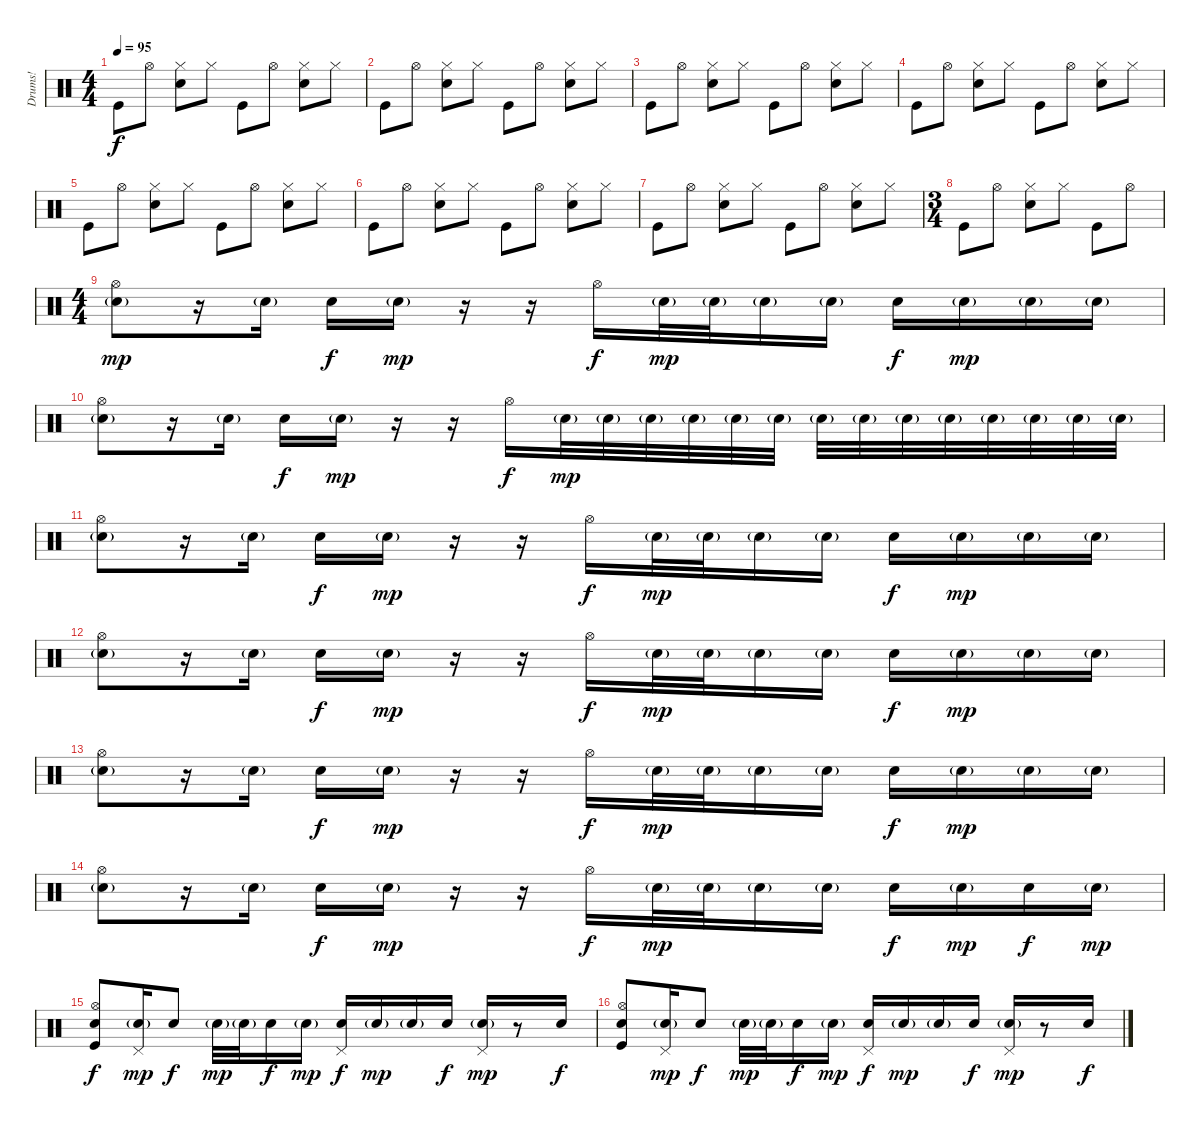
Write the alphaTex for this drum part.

\track ("Drums!" "Drums!") {instrument percussion}
\staff {score}
\articulation defaults
\ts (4 4)
\tempo 95
\clef neutral
\ks c "Kick (hit)".8{dy f} "Hi-Hat (open)".8
("Hi-Hat (closed)" "Electric Snare (hit)").8 "Hi-Hat (closed)".8 "Kick (hit)".8 "Hi-Hat (open)".8 ("Hi-Hat (closed)" "Electric Snare (hit)").8 "Hi-Hat (closed)".8 |
"Kick (hit)".8 "Hi-Hat (open)".8 ("Hi-Hat (closed)" "Electric Snare (hit)").8 "Hi-Hat (closed)".8 "Kick (hit)".8 "Hi-Hat (open)".8 ("Hi-Hat (closed)" "Electric Snare (hit)").8 "Hi-Hat (closed)".8 |
"Kick (hit)".8 "Hi-Hat (open)".8 ("Hi-Hat (closed)" "Electric Snare (hit)").8 "Hi-Hat (closed)".8 "Kick (hit)".8 "Hi-Hat (open)".8 ("Hi-Hat (closed)" "Electric Snare (hit)").8 "Hi-Hat (closed)".8 |
"Kick (hit)".8 "Hi-Hat (open)".8 ("Hi-Hat (closed)" "Electric Snare (hit)").8 "Hi-Hat (closed)".8 "Kick (hit)".8 "Hi-Hat (open)".8 ("Hi-Hat (closed)" "Electric Snare (hit)").8 "Hi-Hat (closed)".8 |
"Kick (hit)".8 "Hi-Hat (open)".8 ("Hi-Hat (closed)" "Electric Snare (hit)").8 "Hi-Hat (closed)".8 "Kick (hit)".8 "Hi-Hat (open)".8 ("Hi-Hat (closed)" "Electric Snare (hit)").8 "Hi-Hat (closed)".8 |
"Kick (hit)".8 "Hi-Hat (open)".8 ("Hi-Hat (closed)" "Electric Snare (hit)").8 "Hi-Hat (closed)".8 "Kick (hit)".8 "Hi-Hat (open)".8 ("Hi-Hat (closed)" "Electric Snare (hit)").8 "Hi-Hat (closed)".8 |
"Kick (hit)".8 "Hi-Hat (open)".8 ("Hi-Hat (closed)" "Electric Snare (hit)").8 "Hi-Hat (closed)".8 "Kick (hit)".8 "Hi-Hat (open)".8 ("Hi-Hat (closed)" "Electric Snare (hit)").8 "Hi-Hat (closed)".8 |
\ts (3 4)
"Kick (hit)".8 "Hi-Hat (open)".8 ("Hi-Hat (closed)" "Electric Snare (hit)").8 "Hi-Hat (closed)".8 "Kick (hit)".8 "Hi-Hat (open)".8 |
\ts (4 4)
("Hi-Hat (open)" "Electric Snare (hit)"{g}).8{dy mp} r.16 "Electric Snare (hit)"{g}.16 "Electric Snare (hit)".16{dy f} "Electric Snare (hit)"{g}.16{dy mp} r.16 r.16 "Hi-Hat (open)".16{dy f} "Electric Snare (hit)"{g}.32{dy mp} "Electric Snare (hit)"{g}.32 "Electric Snare (hit)"{g}.16 "Electric Snare (hit)"{g}.16 "Electric Snare (hit)".16{dy f} "Electric Snare (hit)"{g}.16{dy mp} "Electric Snare (hit)"{g}.16 "Electric Snare (hit)"{g}.16 |
("Hi-Hat (open)" "Electric Snare (hit)"{g}).8 r.16 "Electric Snare (hit)"{g}.16 "Electric Snare (hit)".16{dy f} "Electric Snare (hit)"{g}.16{dy mp} r.16 r.16 "Hi-Hat (open)".16{dy f} "Electric Snare (hit)"{g}.32{dy mp} "Electric Snare (hit)"{g}.32 "Electric Snare (hit)"{g}.32 "Electric Snare (hit)"{g}.32 "Electric Snare (hit)"{g}.32 "Electric Snare (hit)"{g}.32 "Electric Snare (hit)"{g}.32 "Electric Snare (hit)"{g}.32 "Electric Snare (hit)"{g}.32 "Electric Snare (hit)"{g}.32 "Electric Snare (hit)"{g}.32 "Electric Snare (hit)"{g}.32 "Electric Snare (hit)"{g}.32 "Electric Snare (hit)"{g}.32 |
("Hi-Hat (open)" "Electric Snare (hit)"{g}).8 r.16 "Electric Snare (hit)"{g}.16 "Electric Snare (hit)".16{dy f} "Electric Snare (hit)"{g}.16{dy mp} r.16 r.16 "Hi-Hat (open)".16{dy f} "Electric Snare (hit)"{g}.32{dy mp} "Electric Snare (hit)"{g}.32 "Electric Snare (hit)"{g}.16 "Electric Snare (hit)"{g}.16 "Electric Snare (hit)".16{dy f} "Electric Snare (hit)"{g}.16{dy mp} "Electric Snare (hit)"{g}.16 "Electric Snare (hit)"{g}.16 |
("Hi-Hat (open)" "Electric Snare (hit)"{g}).8 r.16 "Electric Snare (hit)"{g}.16 "Electric Snare (hit)".16{dy f} "Electric Snare (hit)"{g}.16{dy mp} r.16 r.16 "Hi-Hat (open)".16{dy f} "Electric Snare (hit)"{g}.32{dy mp} "Electric Snare (hit)"{g}.32 "Electric Snare (hit)"{g}.16 "Electric Snare (hit)"{g}.16 "Electric Snare (hit)".16{dy f} "Electric Snare (hit)"{g}.16{dy mp} "Electric Snare (hit)"{g}.16 "Electric Snare (hit)"{g}.16 |
("Hi-Hat (open)" "Electric Snare (hit)"{g}).8 r.16 "Electric Snare (hit)"{g}.16 "Electric Snare (hit)".16{dy f} "Electric Snare (hit)"{g}.16{dy mp} r.16 r.16 "Hi-Hat (open)".16{dy f} "Electric Snare (hit)"{g}.32{dy mp} "Electric Snare (hit)"{g}.32 "Electric Snare (hit)"{g}.16 "Electric Snare (hit)"{g}.16 "Electric Snare (hit)".16{dy f} "Electric Snare (hit)"{g}.16{dy mp} "Electric Snare (hit)"{g}.16 "Electric Snare (hit)"{g}.16 |
("Hi-Hat (open)" "Electric Snare (hit)"{g}).8 r.16 "Electric Snare (hit)"{g}.16 "Electric Snare (hit)".16{dy f} "Electric Snare (hit)"{g}.16{dy mp} r.16 r.16 "Hi-Hat (open)".16{dy f} "Electric Snare (hit)"{g}.32{dy mp} "Electric Snare (hit)"{g}.32 "Electric Snare (hit)"{g}.16 "Electric Snare (hit)"{g}.16 "Electric Snare (hit)".16{dy f} "Electric Snare (hit)"{g}.16{dy mp} "Electric Snare (hit)".16{dy f} "Electric Snare (hit)"{g}.16{dy mp} |
("Hi-Hat (open)" "Electric Snare (hit)" "Kick (hit)").8{dy f} ("Pedal Hi-Hat (hit)" "Electric Snare (hit)"{g}).16{dy mp} "Electric Snare (hit)".8{dy f} "Electric Snare (hit)"{g}.32{dy mp} "Electric Snare (hit)"{g}.32 "Electric Snare (hit)".16{dy f} "Electric Snare (hit)"{g}.16{dy mp} ("Pedal Hi-Hat (hit)" "Electric Snare (hit)").16{dy f} "Electric Snare (hit)"{g}.16{dy mp} "Electric Snare (hit)"{g}.16 "Electric Snare (hit)".16{dy f} ("Pedal Hi-Hat (hit)" "Electric Snare (hit)"{g}).16{dy mp} r.8 "Electric Snare (hit)".16{dy f} |
("Hi-Hat (open)" "Electric Snare (hit)" "Kick (hit)").8 ("Pedal Hi-Hat (hit)" "Electric Snare (hit)"{g}).16{dy mp} "Electric Snare (hit)".8{dy f} "Electric Snare (hit)"{g}.32{dy mp} "Electric Snare (hit)"{g}.32 "Electric Snare (hit)".16{dy f} "Electric Snare (hit)"{g}.16{dy mp} ("Pedal Hi-Hat (hit)" "Electric Snare (hit)").16{dy f} "Electric Snare (hit)"{g}.16{dy mp} "Electric Snare (hit)"{g}.16 "Electric Snare (hit)".16{dy f} ("Pedal Hi-Hat (hit)" "Electric Snare (hit)"{g}).16{dy mp} r.8 "Electric Snare (hit)".16{dy f}
